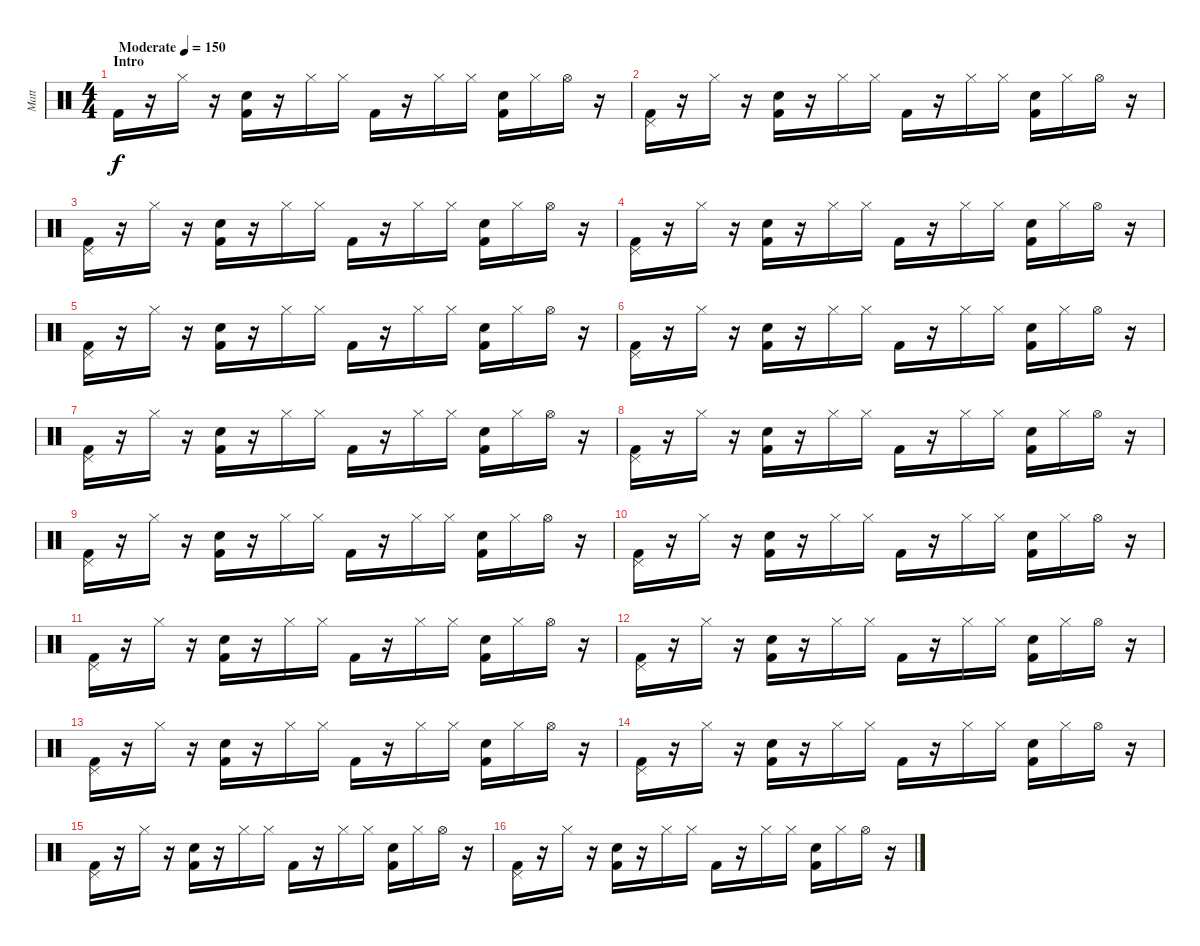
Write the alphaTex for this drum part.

\track ("Matt" "Matt") {instrument percussion}
\staff {score}
\articulation defaults
\ts (4 4)
\section ("" "Intro")
\tempo (150 "Moderate")
\clef neutral
\ks c "Kick (hit) 2".16{dy f}
r.16 "Hi-Hat (closed)".16 r.16 ("Snare (hit) 2" "Kick (hit) 2").16 r.16 "Hi-Hat (closed)".16 "Hi-Hat (closed)".16 "Kick (hit) 2".16 r.16 "Hi-Hat (closed)".16 "Hi-Hat (closed)".16 ("Snare (hit) 2" "Kick (hit) 2").16 "Hi-Hat (closed)".16 "Hi-Hat (open)".16 r.16 |
("Pedal Hi-Hat (hit)" "Kick (hit) 2").16 r.16 "Hi-Hat (closed)".16 r.16 ("Snare (hit) 2" "Kick (hit) 2").16 r.16 "Hi-Hat (closed)".16 "Hi-Hat (closed)".16 "Kick (hit) 2".16 r.16 "Hi-Hat (closed)".16 "Hi-Hat (closed)".16 ("Snare (hit) 2" "Kick (hit) 2").16 "Hi-Hat (closed)".16 "Hi-Hat (open)".16 r.16 |
("Pedal Hi-Hat (hit)" "Kick (hit) 2").16 r.16 "Hi-Hat (closed)".16 r.16 ("Snare (hit) 2" "Kick (hit) 2").16 r.16 "Hi-Hat (closed)".16 "Hi-Hat (closed)".16 "Kick (hit) 2".16 r.16 "Hi-Hat (closed)".16 "Hi-Hat (closed)".16 ("Snare (hit) 2" "Kick (hit) 2").16 "Hi-Hat (closed)".16 "Hi-Hat (open)".16 r.16 |
("Pedal Hi-Hat (hit)" "Kick (hit) 2").16 r.16 "Hi-Hat (closed)".16 r.16 ("Snare (hit) 2" "Kick (hit) 2").16 r.16 "Hi-Hat (closed)".16 "Hi-Hat (closed)".16 "Kick (hit) 2".16 r.16 "Hi-Hat (closed)".16 "Hi-Hat (closed)".16 ("Snare (hit) 2" "Kick (hit) 2").16 "Hi-Hat (closed)".16 "Hi-Hat (open)".16 r.16 |
("Pedal Hi-Hat (hit)" "Kick (hit) 2").16 r.16 "Hi-Hat (closed)".16 r.16 ("Snare (hit) 2" "Kick (hit) 2").16 r.16 "Hi-Hat (closed)".16 "Hi-Hat (closed)".16 "Kick (hit) 2".16 r.16 "Hi-Hat (closed)".16 "Hi-Hat (closed)".16 ("Snare (hit) 2" "Kick (hit) 2").16 "Hi-Hat (closed)".16 "Hi-Hat (open)".16 r.16 |
("Pedal Hi-Hat (hit)" "Kick (hit) 2").16 r.16 "Hi-Hat (closed)".16 r.16 ("Snare (hit) 2" "Kick (hit) 2").16 r.16 "Hi-Hat (closed)".16 "Hi-Hat (closed)".16 "Kick (hit) 2".16 r.16 "Hi-Hat (closed)".16 "Hi-Hat (closed)".16 ("Snare (hit) 2" "Kick (hit) 2").16 "Hi-Hat (closed)".16 "Hi-Hat (open)".16 r.16 |
("Pedal Hi-Hat (hit)" "Kick (hit) 2").16 r.16 "Hi-Hat (closed)".16 r.16 ("Snare (hit) 2" "Kick (hit) 2").16 r.16 "Hi-Hat (closed)".16 "Hi-Hat (closed)".16 "Kick (hit) 2".16 r.16 "Hi-Hat (closed)".16 "Hi-Hat (closed)".16 ("Snare (hit) 2" "Kick (hit) 2").16 "Hi-Hat (closed)".16 "Hi-Hat (open)".16 r.16 |
("Pedal Hi-Hat (hit)" "Kick (hit) 2").16 r.16 "Hi-Hat (closed)".16 r.16 ("Snare (hit) 2" "Kick (hit) 2").16 r.16 "Hi-Hat (closed)".16 "Hi-Hat (closed)".16 "Kick (hit) 2".16 r.16 "Hi-Hat (closed)".16 "Hi-Hat (closed)".16 ("Snare (hit) 2" "Kick (hit) 2").16 "Hi-Hat (closed)".16 "Hi-Hat (open)".16 r.16 |
("Pedal Hi-Hat (hit)" "Kick (hit) 2").16 r.16 "Hi-Hat (closed)".16 r.16 ("Snare (hit) 2" "Kick (hit) 2").16 r.16 "Hi-Hat (closed)".16 "Hi-Hat (closed)".16 "Kick (hit) 2".16 r.16 "Hi-Hat (closed)".16 "Hi-Hat (closed)".16 ("Snare (hit) 2" "Kick (hit) 2").16 "Hi-Hat (closed)".16 "Hi-Hat (open)".16 r.16 |
("Pedal Hi-Hat (hit)" "Kick (hit) 2").16 r.16 "Hi-Hat (closed)".16 r.16 ("Snare (hit) 2" "Kick (hit) 2").16 r.16 "Hi-Hat (closed)".16 "Hi-Hat (closed)".16 "Kick (hit) 2".16 r.16 "Hi-Hat (closed)".16 "Hi-Hat (closed)".16 ("Snare (hit) 2" "Kick (hit) 2").16 "Hi-Hat (closed)".16 "Hi-Hat (open)".16 r.16 |
("Pedal Hi-Hat (hit)" "Kick (hit) 2").16 r.16 "Hi-Hat (closed)".16 r.16 ("Snare (hit) 2" "Kick (hit) 2").16 r.16 "Hi-Hat (closed)".16 "Hi-Hat (closed)".16 "Kick (hit) 2".16 r.16 "Hi-Hat (closed)".16 "Hi-Hat (closed)".16 ("Snare (hit) 2" "Kick (hit) 2").16 "Hi-Hat (closed)".16 "Hi-Hat (open)".16 r.16 |
("Pedal Hi-Hat (hit)" "Kick (hit) 2").16 r.16 "Hi-Hat (closed)".16 r.16 ("Snare (hit) 2" "Kick (hit) 2").16 r.16 "Hi-Hat (closed)".16 "Hi-Hat (closed)".16 "Kick (hit) 2".16 r.16 "Hi-Hat (closed)".16 "Hi-Hat (closed)".16 ("Snare (hit) 2" "Kick (hit) 2").16 "Hi-Hat (closed)".16 "Hi-Hat (open)".16 r.16 |
("Pedal Hi-Hat (hit)" "Kick (hit) 2").16 r.16 "Hi-Hat (closed)".16 r.16 ("Snare (hit) 2" "Kick (hit) 2").16 r.16 "Hi-Hat (closed)".16 "Hi-Hat (closed)".16 "Kick (hit) 2".16 r.16 "Hi-Hat (closed)".16 "Hi-Hat (closed)".16 ("Snare (hit) 2" "Kick (hit) 2").16 "Hi-Hat (closed)".16 "Hi-Hat (open)".16 r.16 |
("Pedal Hi-Hat (hit)" "Kick (hit) 2").16 r.16 "Hi-Hat (closed)".16 r.16 ("Snare (hit) 2" "Kick (hit) 2").16 r.16 "Hi-Hat (closed)".16 "Hi-Hat (closed)".16 "Kick (hit) 2".16 r.16 "Hi-Hat (closed)".16 "Hi-Hat (closed)".16 ("Snare (hit) 2" "Kick (hit) 2").16 "Hi-Hat (closed)".16 "Hi-Hat (open)".16 r.16 |
("Pedal Hi-Hat (hit)" "Kick (hit) 2").16 r.16 "Hi-Hat (closed)".16 r.16 ("Snare (hit) 2" "Kick (hit) 2").16 r.16 "Hi-Hat (closed)".16 "Hi-Hat (closed)".16 "Kick (hit) 2".16 r.16 "Hi-Hat (closed)".16 "Hi-Hat (closed)".16 ("Snare (hit) 2" "Kick (hit) 2").16 "Hi-Hat (closed)".16 "Hi-Hat (open)".16 r.16 |
("Pedal Hi-Hat (hit)" "Kick (hit) 2").16 r.16 "Hi-Hat (closed)".16 r.16 ("Snare (hit) 2" "Kick (hit) 2").16 r.16 "Hi-Hat (closed)".16 "Hi-Hat (closed)".16 "Kick (hit) 2".16 r.16 "Hi-Hat (closed)".16 "Hi-Hat (closed)".16 ("Snare (hit) 2" "Kick (hit) 2").16 "Hi-Hat (closed)".16 "Hi-Hat (open)".16 r.16
